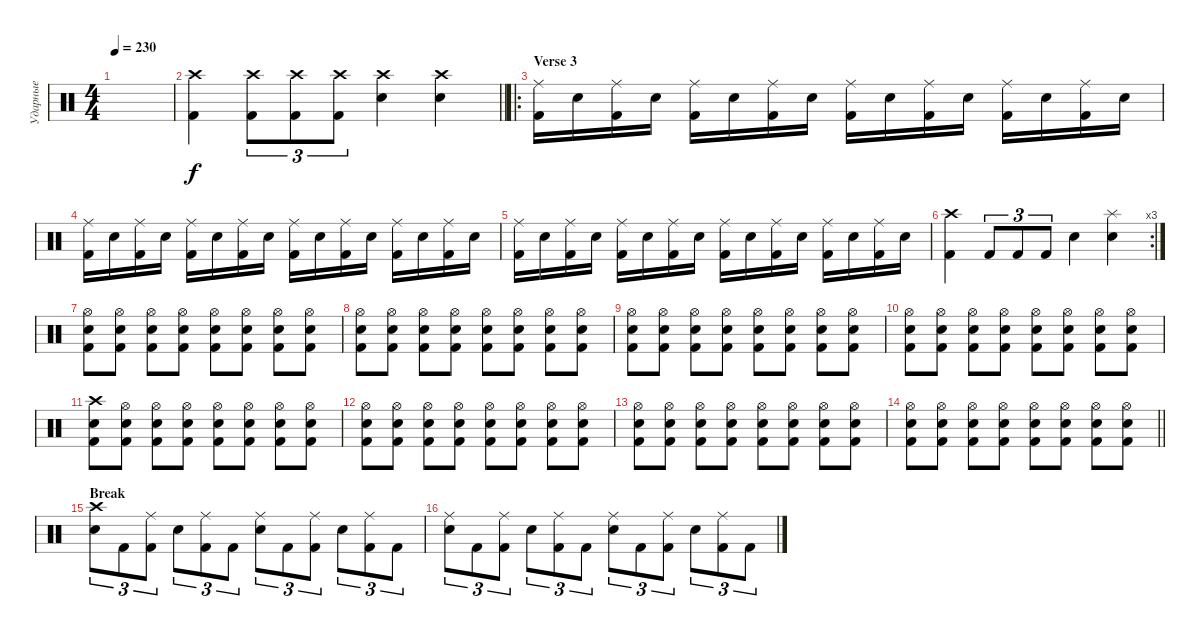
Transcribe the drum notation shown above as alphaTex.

\track ("Ударные" "Ударные") {instrument percussion}
\staff {score}
\articulation defaults
\ts (4 4)
\tempo 230
\clef neutral
\ks c
|
\barLineRight lightlight
("Crash high (hit)" "Kick (hit) 2").4 ("Crash high (hit)" "Kick (hit) 2").8{tu (3 2)} ("Crash high (hit)" "Kick (hit) 2").8{tu (3 2)} ("Crash high (hit)" "Kick (hit) 2").8{tu (3 2)} ("Crash high (hit)" "Snare (hit) 2").4 ("Crash high (hit)" "Snare (hit) 2").4 |
\ro
\section ("" "Verse 3")
("Ride (middle)" "Kick (hit) 2").16 "Snare (hit) 2".16 ("Ride (middle)" "Kick (hit) 2").16 "Snare (hit) 2".16 ("Ride (middle)" "Kick (hit) 2").16 "Snare (hit) 2".16 ("Ride (middle)" "Kick (hit) 2").16 "Snare (hit) 2".16 ("Ride (middle)" "Kick (hit) 2").16 "Snare (hit) 2".16 ("Ride (middle)" "Kick (hit) 2").16 "Snare (hit) 2".16 ("Ride (middle)" "Kick (hit) 2").16 "Snare (hit) 2".16 ("Ride (middle)" "Kick (hit) 2").16 "Snare (hit) 2".16 |
("Ride (middle)" "Kick (hit) 2").16 "Snare (hit) 2".16 ("Ride (middle)" "Kick (hit) 2").16 "Snare (hit) 2".16 ("Ride (middle)" "Kick (hit) 2").16 "Snare (hit) 2".16 ("Ride (middle)" "Kick (hit) 2").16 "Snare (hit) 2".16 ("Ride (middle)" "Kick (hit) 2").16 "Snare (hit) 2".16 ("Ride (middle)" "Kick (hit) 2").16 "Snare (hit) 2".16 ("Ride (middle)" "Kick (hit) 2").16 "Snare (hit) 2".16 ("Ride (middle)" "Kick (hit) 2").16 "Snare (hit) 2".16 |
("Ride (middle)" "Kick (hit) 2").16 "Snare (hit) 2".16 ("Ride (middle)" "Kick (hit) 2").16 "Snare (hit) 2".16 ("Ride (middle)" "Kick (hit) 2").16 "Snare (hit) 2".16 ("Ride (middle)" "Kick (hit) 2").16 "Snare (hit) 2".16 ("Ride (middle)" "Kick (hit) 2").16 "Snare (hit) 2".16 ("Ride (middle)" "Kick (hit) 2").16 "Snare (hit) 2".16 ("Ride (middle)" "Kick (hit) 2").16 "Snare (hit) 2".16 ("Ride (middle)" "Kick (hit) 2").16 "Snare (hit) 2".16 |
\rc 3
("Crash high (hit)" "Kick (hit) 2").4 "Kick (hit) 2".8{tu (3 2)} "Kick (hit) 2".8{tu (3 2)} "Kick (hit) 2".8{tu (3 2)} "Snare (hit) 2".4 ("Splash (hit)" "Snare (hit) 2").4 |
("Hi-Hat (open)" "Snare (hit) 2" "Kick (hit) 2").8 ("Hi-Hat (open)" "Snare (hit) 2" "Kick (hit) 2").8 ("Hi-Hat (open)" "Snare (hit) 2" "Kick (hit) 2").8 ("Hi-Hat (open)" "Snare (hit) 2" "Kick (hit) 2").8 ("Hi-Hat (open)" "Snare (hit) 2" "Kick (hit) 2").8 ("Hi-Hat (open)" "Snare (hit) 2" "Kick (hit) 2").8 ("Hi-Hat (open)" "Snare (hit) 2" "Kick (hit) 2").8 ("Hi-Hat (open)" "Snare (hit) 2" "Kick (hit) 2").8 |
("Hi-Hat (open)" "Snare (hit) 2" "Kick (hit) 2").8 ("Hi-Hat (open)" "Snare (hit) 2" "Kick (hit) 2").8 ("Hi-Hat (open)" "Snare (hit) 2" "Kick (hit) 2").8 ("Hi-Hat (open)" "Snare (hit) 2" "Kick (hit) 2").8 ("Hi-Hat (open)" "Snare (hit) 2" "Kick (hit) 2").8 ("Hi-Hat (open)" "Snare (hit) 2" "Kick (hit) 2").8 ("Hi-Hat (open)" "Snare (hit) 2" "Kick (hit) 2").8 ("Hi-Hat (open)" "Snare (hit) 2" "Kick (hit) 2").8 |
("Hi-Hat (open)" "Snare (hit) 2" "Kick (hit) 2").8 ("Hi-Hat (open)" "Snare (hit) 2" "Kick (hit) 2").8 ("Hi-Hat (open)" "Snare (hit) 2" "Kick (hit) 2").8 ("Hi-Hat (open)" "Snare (hit) 2" "Kick (hit) 2").8 ("Hi-Hat (open)" "Snare (hit) 2" "Kick (hit) 2").8 ("Hi-Hat (open)" "Snare (hit) 2" "Kick (hit) 2").8 ("Hi-Hat (open)" "Snare (hit) 2" "Kick (hit) 2").8 ("Hi-Hat (open)" "Snare (hit) 2" "Kick (hit) 2").8 |
("Hi-Hat (open)" "Snare (hit) 2" "Kick (hit) 2").8 ("Hi-Hat (open)" "Snare (hit) 2" "Kick (hit) 2").8 ("Hi-Hat (open)" "Snare (hit) 2" "Kick (hit) 2").8 ("Hi-Hat (open)" "Snare (hit) 2" "Kick (hit) 2").8 ("Hi-Hat (open)" "Snare (hit) 2" "Kick (hit) 2").8 ("Hi-Hat (open)" "Snare (hit) 2" "Kick (hit) 2").8 ("Hi-Hat (open)" "Snare (hit) 2" "Kick (hit) 2").8 ("Hi-Hat (open)" "Snare (hit) 2" "Kick (hit) 2").8 |
("Crash high (hit)" "Snare (hit) 2" "Kick (hit) 2").8 ("Hi-Hat (open)" "Snare (hit) 2" "Kick (hit) 2").8 ("Hi-Hat (open)" "Snare (hit) 2" "Kick (hit) 2").8 ("Hi-Hat (open)" "Snare (hit) 2" "Kick (hit) 2").8 ("Hi-Hat (open)" "Snare (hit) 2" "Kick (hit) 2").8 ("Hi-Hat (open)" "Snare (hit) 2" "Kick (hit) 2").8 ("Hi-Hat (open)" "Snare (hit) 2" "Kick (hit) 2").8 ("Hi-Hat (open)" "Snare (hit) 2" "Kick (hit) 2").8 |
("Hi-Hat (open)" "Snare (hit) 2" "Kick (hit) 2").8 ("Hi-Hat (open)" "Snare (hit) 2" "Kick (hit) 2").8 ("Hi-Hat (open)" "Snare (hit) 2" "Kick (hit) 2").8 ("Hi-Hat (open)" "Snare (hit) 2" "Kick (hit) 2").8 ("Hi-Hat (open)" "Snare (hit) 2" "Kick (hit) 2").8 ("Hi-Hat (open)" "Snare (hit) 2" "Kick (hit) 2").8 ("Hi-Hat (open)" "Snare (hit) 2" "Kick (hit) 2").8 ("Hi-Hat (open)" "Snare (hit) 2" "Kick (hit) 2").8 |
("Hi-Hat (open)" "Snare (hit) 2" "Kick (hit) 2").8 ("Hi-Hat (open)" "Snare (hit) 2" "Kick (hit) 2").8 ("Hi-Hat (open)" "Snare (hit) 2" "Kick (hit) 2").8 ("Hi-Hat (open)" "Snare (hit) 2" "Kick (hit) 2").8 ("Hi-Hat (open)" "Snare (hit) 2" "Kick (hit) 2").8 ("Hi-Hat (open)" "Snare (hit) 2" "Kick (hit) 2").8 ("Hi-Hat (open)" "Snare (hit) 2" "Kick (hit) 2").8 ("Hi-Hat (open)" "Snare (hit) 2" "Kick (hit) 2").8 |
\barLineRight lightlight
("Hi-Hat (open)" "Snare (hit) 2" "Kick (hit) 2").8 ("Hi-Hat (open)" "Snare (hit) 2" "Kick (hit) 2").8 ("Hi-Hat (open)" "Snare (hit) 2" "Kick (hit) 2").8 ("Hi-Hat (open)" "Snare (hit) 2" "Kick (hit) 2").8 ("Hi-Hat (open)" "Snare (hit) 2" "Kick (hit) 2").8 ("Hi-Hat (open)" "Snare (hit) 2" "Kick (hit) 2").8 ("Hi-Hat (open)" "Snare (hit) 2" "Kick (hit) 2").8 ("Hi-Hat (open)" "Snare (hit) 2" "Kick (hit) 2").8 |
\section ("" "Break")
("Crash high (hit)" "Snare (hit) 2").8{tu (3 2)} "Kick (hit) 2".8{tu (3 2)} ("Ride (middle)" "Kick (hit) 2").8{tu (3 2)} "Snare (hit) 2".8{tu (3 2)} ("Ride (middle)" "Kick (hit) 2").8{tu (3 2)} "Kick (hit) 2".8{tu (3 2)} ("Ride (middle)" "Snare (hit) 2").8{tu (3 2)} "Kick (hit) 2".8{tu (3 2)} ("Ride (middle)" "Kick (hit) 2").8{tu (3 2)} "Snare (hit) 2".8{tu (3 2)} ("Ride (middle)" "Kick (hit) 2").8{tu (3 2)} "Kick (hit) 2".8{tu (3 2)} |
("Ride (middle)" "Snare (hit) 2").8{tu (3 2)} "Kick (hit) 2".8{tu (3 2)} ("Ride (middle)" "Kick (hit) 2").8{tu (3 2)} "Snare (hit) 2".8{tu (3 2)} ("Ride (middle)" "Kick (hit) 2").8{tu (3 2)} "Kick (hit) 2".8{tu (3 2)} ("Ride (middle)" "Snare (hit) 2").8{tu (3 2)} "Kick (hit) 2".8{tu (3 2)} ("Ride (middle)" "Kick (hit) 2").8{tu (3 2)} "Snare (hit) 2".8{tu (3 2)} ("Ride (middle)" "Kick (hit) 2").8{tu (3 2)} "Kick (hit) 2".8{tu (3 2)}
